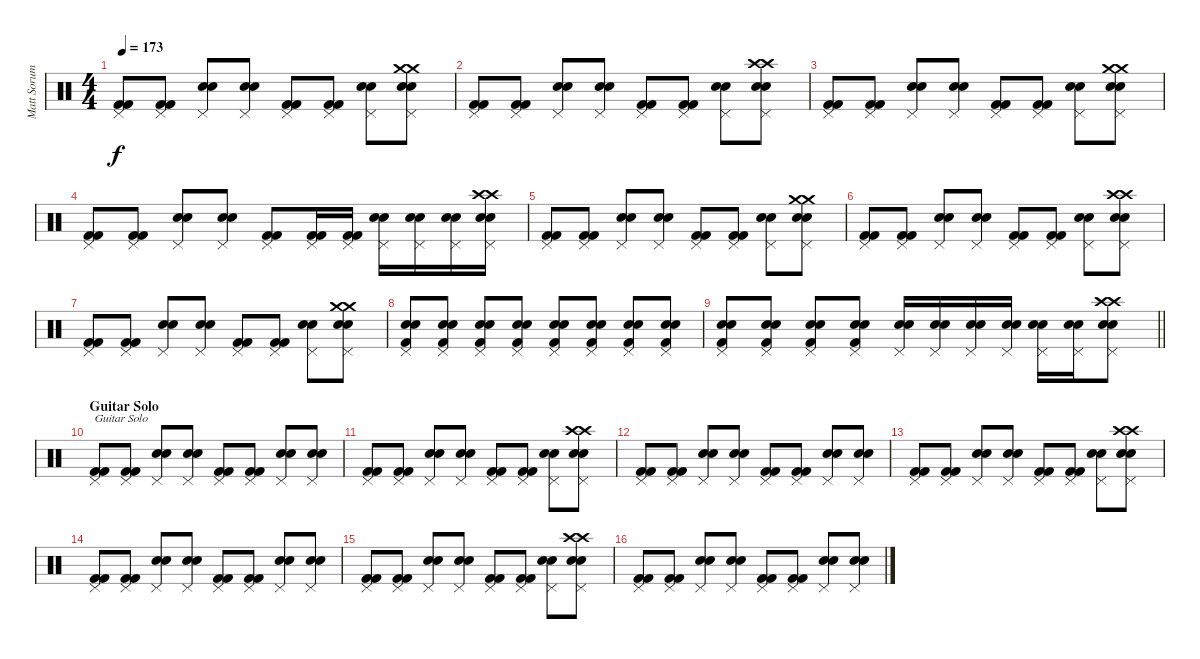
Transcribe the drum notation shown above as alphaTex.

\track ("Matt Sorum" "Matt Sorum") {instrument percussion}
\staff {score}
\articulation defaults
\ts (4 4)
\tempo 173
\clef neutral
\ks c
("Pedal Hi-Hat (hit)" "Kick (hit) 2" "Kick (hit) 2").8{dy f} ("Pedal Hi-Hat (hit)" "Kick (hit) 2" "Kick (hit) 2").8 ("Pedal Hi-Hat (hit)" "Snare (hit) 2" "Snare (hit) 2").8 ("Pedal Hi-Hat (hit)" "Snare (hit) 2" "Snare (hit) 2").8 ("Pedal Hi-Hat (hit)" "Kick (hit) 2" "Kick (hit) 2").8 ("Pedal Hi-Hat (hit)" "Kick (hit) 2" "Kick (hit) 2").8 ("Pedal Hi-Hat (hit)" "Snare (hit) 2" "Snare (hit) 2").8 ("Crash medium (hit)" "Crash medium (hit)" "Pedal Hi-Hat (hit)" "Snare (hit) 2" "Snare (hit) 2").8 |
("Pedal Hi-Hat (hit)" "Kick (hit) 2" "Kick (hit) 2").8 ("Pedal Hi-Hat (hit)" "Kick (hit) 2" "Kick (hit) 2").8 ("Pedal Hi-Hat (hit)" "Snare (hit) 2" "Snare (hit) 2").8 ("Pedal Hi-Hat (hit)" "Snare (hit) 2" "Snare (hit) 2").8 ("Pedal Hi-Hat (hit)" "Kick (hit) 2" "Kick (hit) 2").8 ("Pedal Hi-Hat (hit)" "Kick (hit) 2" "Kick (hit) 2").8 ("Pedal Hi-Hat (hit)" "Snare (hit) 2" "Snare (hit) 2").8 ("Crash high (hit)" "Crash high (hit)" "Pedal Hi-Hat (hit)" "Snare (hit) 2" "Snare (hit) 2").8 |
("Pedal Hi-Hat (hit)" "Kick (hit) 2" "Kick (hit) 2").8 ("Pedal Hi-Hat (hit)" "Kick (hit) 2" "Kick (hit) 2").8 ("Pedal Hi-Hat (hit)" "Snare (hit) 2" "Snare (hit) 2").8 ("Pedal Hi-Hat (hit)" "Snare (hit) 2" "Snare (hit) 2").8 ("Pedal Hi-Hat (hit)" "Kick (hit) 2" "Kick (hit) 2").8 ("Pedal Hi-Hat (hit)" "Kick (hit) 2" "Kick (hit) 2").8 ("Pedal Hi-Hat (hit)" "Snare (hit) 2" "Snare (hit) 2").8 ("Crash medium (hit)" "Crash medium (hit)" "Pedal Hi-Hat (hit)" "Snare (hit) 2" "Snare (hit) 2").8 |
("Pedal Hi-Hat (hit)" "Kick (hit) 2" "Kick (hit) 2").8 ("Pedal Hi-Hat (hit)" "Kick (hit) 2" "Kick (hit) 2").8 ("Pedal Hi-Hat (hit)" "Snare (hit) 2" "Snare (hit) 2").8 ("Pedal Hi-Hat (hit)" "Snare (hit) 2" "Snare (hit) 2").8 ("Pedal Hi-Hat (hit)" "Kick (hit) 2" "Kick (hit) 2").8 ("Pedal Hi-Hat (hit)" "Kick (hit) 2" "Kick (hit) 2").16 ("Pedal Hi-Hat (hit)" "Kick (hit) 2" "Kick (hit) 2").16 ("Pedal Hi-Hat (hit)" "Snare (hit) 2" "Snare (hit) 2").16 ("Pedal Hi-Hat (hit)" "Snare (hit) 2" "Snare (hit) 2").16 ("Pedal Hi-Hat (hit)" "Snare (hit) 2" "Snare (hit) 2").16 ("Crash high (hit)" "Crash high (hit)" "Pedal Hi-Hat (hit)" "Snare (hit) 2" "Snare (hit) 2").16 |
("Pedal Hi-Hat (hit)" "Kick (hit) 2" "Kick (hit) 2").8 ("Pedal Hi-Hat (hit)" "Kick (hit) 2" "Kick (hit) 2").8 ("Pedal Hi-Hat (hit)" "Snare (hit) 2" "Snare (hit) 2").8 ("Pedal Hi-Hat (hit)" "Snare (hit) 2" "Snare (hit) 2").8 ("Pedal Hi-Hat (hit)" "Kick (hit) 2" "Kick (hit) 2").8 ("Pedal Hi-Hat (hit)" "Kick (hit) 2" "Kick (hit) 2").8 ("Pedal Hi-Hat (hit)" "Snare (hit) 2" "Snare (hit) 2").8 ("Crash medium (hit)" "Crash medium (hit)" "Pedal Hi-Hat (hit)" "Snare (hit) 2" "Snare (hit) 2").8 |
("Pedal Hi-Hat (hit)" "Kick (hit) 2" "Kick (hit) 2").8 ("Pedal Hi-Hat (hit)" "Kick (hit) 2" "Kick (hit) 2").8 ("Pedal Hi-Hat (hit)" "Snare (hit) 2" "Snare (hit) 2").8 ("Pedal Hi-Hat (hit)" "Snare (hit) 2" "Snare (hit) 2").8 ("Pedal Hi-Hat (hit)" "Kick (hit) 2" "Kick (hit) 2").8 ("Pedal Hi-Hat (hit)" "Kick (hit) 2" "Kick (hit) 2").8 ("Pedal Hi-Hat (hit)" "Snare (hit) 2" "Snare (hit) 2").8 ("Crash high (hit)" "Crash high (hit)" "Pedal Hi-Hat (hit)" "Snare (hit) 2" "Snare (hit) 2").8 |
("Pedal Hi-Hat (hit)" "Kick (hit) 2" "Kick (hit) 2").8 ("Pedal Hi-Hat (hit)" "Kick (hit) 2" "Kick (hit) 2").8 ("Pedal Hi-Hat (hit)" "Snare (hit) 2" "Snare (hit) 2").8 ("Pedal Hi-Hat (hit)" "Snare (hit) 2" "Snare (hit) 2").8 ("Pedal Hi-Hat (hit)" "Kick (hit) 2" "Kick (hit) 2").8 ("Pedal Hi-Hat (hit)" "Kick (hit) 2" "Kick (hit) 2").8 ("Pedal Hi-Hat (hit)" "Snare (hit) 2" "Snare (hit) 2").8 ("Crash medium (hit)" "Crash medium (hit)" "Pedal Hi-Hat (hit)" "Snare (hit) 2" "Snare (hit) 2").8 |
("Pedal Hi-Hat (hit)" "Snare (hit) 2" "Snare (hit) 2" "Kick (hit) 2").8 ("Pedal Hi-Hat (hit)" "Snare (hit) 2" "Snare (hit) 2" "Kick (hit) 2").8 ("Pedal Hi-Hat (hit)" "Snare (hit) 2" "Snare (hit) 2" "Kick (hit) 2").8 ("Pedal Hi-Hat (hit)" "Snare (hit) 2" "Snare (hit) 2" "Kick (hit) 2").8 ("Pedal Hi-Hat (hit)" "Snare (hit) 2" "Snare (hit) 2" "Kick (hit) 2").8 ("Pedal Hi-Hat (hit)" "Snare (hit) 2" "Snare (hit) 2" "Kick (hit) 2").8 ("Pedal Hi-Hat (hit)" "Snare (hit) 2" "Snare (hit) 2" "Kick (hit) 2").8 ("Pedal Hi-Hat (hit)" "Snare (hit) 2" "Snare (hit) 2" "Kick (hit) 2").8 |
\barLineRight lightlight
("Pedal Hi-Hat (hit)" "Snare (hit) 2" "Snare (hit) 2" "Kick (hit) 2").8 ("Pedal Hi-Hat (hit)" "Snare (hit) 2" "Snare (hit) 2" "Kick (hit) 2").8 ("Pedal Hi-Hat (hit)" "Snare (hit) 2" "Snare (hit) 2" "Kick (hit) 2").8 ("Pedal Hi-Hat (hit)" "Snare (hit) 2" "Snare (hit) 2" "Kick (hit) 2").8 ("Pedal Hi-Hat (hit)" "Snare (hit) 2" "Snare (hit) 2").16 ("Pedal Hi-Hat (hit)" "Snare (hit) 2" "Snare (hit) 2").16 ("Pedal Hi-Hat (hit)" "Snare (hit) 2" "Snare (hit) 2").16 ("Pedal Hi-Hat (hit)" "Snare (hit) 2" "Snare (hit) 2").16 ("Pedal Hi-Hat (hit)" "Snare (hit) 2" "Snare (hit) 2").16 ("Pedal Hi-Hat (hit)" "Snare (hit) 2" "Snare (hit) 2").16 ("Crash high (hit)" "Crash high (hit)" "Pedal Hi-Hat (hit)" "Snare (hit) 2" "Snare (hit) 2").8 |
\section ("" "Guitar Solo")
("Pedal Hi-Hat (hit)" "Kick (hit) 2" "Kick (hit) 2").8{txt "Guitar Solo"} ("Pedal Hi-Hat (hit)" "Kick (hit) 2" "Kick (hit) 2").8 ("Pedal Hi-Hat (hit)" "Snare (hit) 2" "Snare (hit) 2").8 ("Pedal Hi-Hat (hit)" "Snare (hit) 2" "Snare (hit) 2").8 ("Pedal Hi-Hat (hit)" "Kick (hit) 2" "Kick (hit) 2").8 ("Pedal Hi-Hat (hit)" "Kick (hit) 2" "Kick (hit) 2").8 ("Pedal Hi-Hat (hit)" "Snare (hit) 2" "Snare (hit) 2").8 ("Pedal Hi-Hat (hit)" "Snare (hit) 2" "Snare (hit) 2").8 |
("Pedal Hi-Hat (hit)" "Kick (hit) 2" "Kick (hit) 2").8 ("Pedal Hi-Hat (hit)" "Kick (hit) 2" "Kick (hit) 2").8 ("Pedal Hi-Hat (hit)" "Snare (hit) 2" "Snare (hit) 2").8 ("Pedal Hi-Hat (hit)" "Snare (hit) 2" "Snare (hit) 2").8 ("Pedal Hi-Hat (hit)" "Kick (hit) 2" "Kick (hit) 2").8 ("Pedal Hi-Hat (hit)" "Kick (hit) 2" "Kick (hit) 2").8 ("Pedal Hi-Hat (hit)" "Snare (hit) 2" "Snare (hit) 2").8 ("Crash high (hit)" "Crash high (hit)" "Pedal Hi-Hat (hit)" "Snare (hit) 2" "Snare (hit) 2").8 |
("Pedal Hi-Hat (hit)" "Kick (hit) 2" "Kick (hit) 2").8 ("Pedal Hi-Hat (hit)" "Kick (hit) 2" "Kick (hit) 2").8 ("Pedal Hi-Hat (hit)" "Snare (hit) 2" "Snare (hit) 2").8 ("Pedal Hi-Hat (hit)" "Snare (hit) 2" "Snare (hit) 2").8 ("Pedal Hi-Hat (hit)" "Kick (hit) 2" "Kick (hit) 2").8 ("Pedal Hi-Hat (hit)" "Kick (hit) 2" "Kick (hit) 2").8 ("Pedal Hi-Hat (hit)" "Snare (hit) 2" "Snare (hit) 2").8 ("Pedal Hi-Hat (hit)" "Snare (hit) 2" "Snare (hit) 2").8 |
("Pedal Hi-Hat (hit)" "Kick (hit) 2" "Kick (hit) 2").8 ("Pedal Hi-Hat (hit)" "Kick (hit) 2" "Kick (hit) 2").8 ("Pedal Hi-Hat (hit)" "Snare (hit) 2" "Snare (hit) 2").8 ("Pedal Hi-Hat (hit)" "Snare (hit) 2" "Snare (hit) 2").8 ("Pedal Hi-Hat (hit)" "Kick (hit) 2" "Kick (hit) 2").8 ("Pedal Hi-Hat (hit)" "Kick (hit) 2" "Kick (hit) 2").8 ("Pedal Hi-Hat (hit)" "Snare (hit) 2" "Snare (hit) 2").8 ("Crash high (hit)" "Crash high (hit)" "Pedal Hi-Hat (hit)" "Snare (hit) 2" "Snare (hit) 2").8 |
("Pedal Hi-Hat (hit)" "Kick (hit) 2" "Kick (hit) 2").8 ("Pedal Hi-Hat (hit)" "Kick (hit) 2" "Kick (hit) 2").8 ("Pedal Hi-Hat (hit)" "Snare (hit) 2" "Snare (hit) 2").8 ("Pedal Hi-Hat (hit)" "Snare (hit) 2" "Snare (hit) 2").8 ("Pedal Hi-Hat (hit)" "Kick (hit) 2" "Kick (hit) 2").8 ("Pedal Hi-Hat (hit)" "Kick (hit) 2" "Kick (hit) 2").8 ("Pedal Hi-Hat (hit)" "Snare (hit) 2" "Snare (hit) 2").8 ("Pedal Hi-Hat (hit)" "Snare (hit) 2" "Snare (hit) 2").8 |
("Pedal Hi-Hat (hit)" "Kick (hit) 2" "Kick (hit) 2").8 ("Pedal Hi-Hat (hit)" "Kick (hit) 2" "Kick (hit) 2").8 ("Pedal Hi-Hat (hit)" "Snare (hit) 2" "Snare (hit) 2").8 ("Pedal Hi-Hat (hit)" "Snare (hit) 2" "Snare (hit) 2").8 ("Pedal Hi-Hat (hit)" "Kick (hit) 2" "Kick (hit) 2").8 ("Pedal Hi-Hat (hit)" "Kick (hit) 2" "Kick (hit) 2").8 ("Pedal Hi-Hat (hit)" "Snare (hit) 2" "Snare (hit) 2").8 ("Crash high (hit)" "Crash high (hit)" "Pedal Hi-Hat (hit)" "Snare (hit) 2" "Snare (hit) 2").8 |
("Pedal Hi-Hat (hit)" "Kick (hit) 2" "Kick (hit) 2").8 ("Pedal Hi-Hat (hit)" "Kick (hit) 2" "Kick (hit) 2").8 ("Pedal Hi-Hat (hit)" "Snare (hit) 2" "Snare (hit) 2").8 ("Pedal Hi-Hat (hit)" "Snare (hit) 2" "Snare (hit) 2").8 ("Pedal Hi-Hat (hit)" "Kick (hit) 2" "Kick (hit) 2").8 ("Pedal Hi-Hat (hit)" "Kick (hit) 2" "Kick (hit) 2").8 ("Pedal Hi-Hat (hit)" "Snare (hit) 2" "Snare (hit) 2").8 ("Pedal Hi-Hat (hit)" "Snare (hit) 2" "Snare (hit) 2").8
